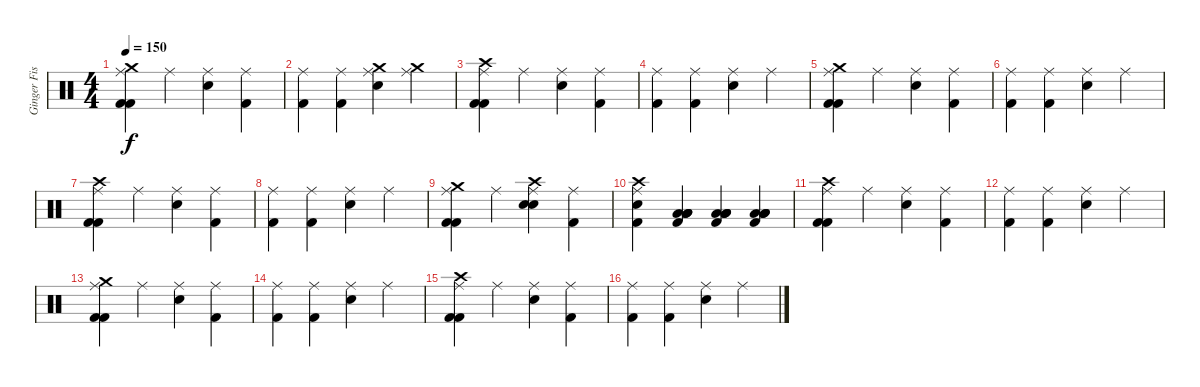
\track ("Ginger Fish" "Ginger Fis") {instrument percussion}
\staff {score}
\articulation defaults
\ts (4 4)
\tempo 150
\clef neutral
\ks c
("Crash medium (hit)" "Ride (middle)" "Kick (hit) 2" "Kick (hit) 2").4{dy f} "Ride (middle)".4 ("Ride (middle)" "Electric Snare (hit)").4 ("Ride (middle)" "Kick (hit) 2").4 |
("Ride (middle)" "Kick (hit) 2").4 ("Ride (middle)" "Kick (hit) 2").4 ("Crash medium (hit)" "Ride (middle)" "Electric Snare (hit)").4 ("Crash medium (hit)" "Ride (middle)").4 |
("Crash high (hit)" "Ride (middle)" "Kick (hit) 2" "Kick (hit) 2").4 "Ride (middle)".4 ("Ride (middle)" "Electric Snare (hit)").4 ("Ride (middle)" "Kick (hit) 2").4 |
("Ride (middle)" "Kick (hit) 2").4 ("Ride (middle)" "Kick (hit) 2").4 ("Ride (middle)" "Electric Snare (hit)").4 "Ride (middle)".4 |
("Crash medium (hit)" "Ride (middle)" "Kick (hit) 2" "Kick (hit) 2").4 "Ride (middle)".4 ("Ride (middle)" "Electric Snare (hit)").4 ("Ride (middle)" "Kick (hit) 2").4 |
("Ride (middle)" "Kick (hit) 2").4 ("Ride (middle)" "Kick (hit) 2").4 ("Ride (middle)" "Electric Snare (hit)").4 "Ride (middle)".4 |
("Crash high (hit)" "Ride (middle)" "Kick (hit) 2" "Kick (hit) 2").4 "Ride (middle)".4 ("Ride (middle)" "Electric Snare (hit)").4 ("Ride (middle)" "Kick (hit) 2").4 |
("Ride (middle)" "Kick (hit) 2").4 ("Ride (middle)" "Kick (hit) 2").4 ("Ride (middle)" "Electric Snare (hit)").4 "Ride (middle)".4 |
("Crash medium (hit)" "Ride (middle)" "Kick (hit) 2" "Kick (hit) 2").4 "Ride (middle)".4 ("Crash high (hit)" "Ride (middle)" "Electric Snare (hit)" "Electric Snare (hit)").4 ("Ride (middle)" "Kick (hit) 2").4 |
("Crash high (hit)" "Ride (middle)" "Electric Snare (hit)" "Kick (hit) 2").4 ("Kick (hit) 2" "Low Tom (hit)" "Low Tom (hit)" "Low Tom (hit)" "Low Tom (hit)").4 ("Kick (hit) 2" "Low Tom (hit)" "Low Tom (hit)" "Low Tom (hit)" "Low Tom (hit)").4 ("Kick (hit) 2" "Low Tom (hit)" "Low Tom (hit)" "Low Tom (hit)" "Low Tom (hit)").4 |
("Crash high (hit)" "Ride (middle)" "Kick (hit) 2" "Kick (hit) 2").4 "Ride (middle)".4 ("Ride (middle)" "Electric Snare (hit)").4 ("Ride (middle)" "Kick (hit) 2").4 |
("Ride (middle)" "Kick (hit) 2").4 ("Ride (middle)" "Kick (hit) 2").4 ("Ride (middle)" "Electric Snare (hit)").4 "Ride (middle)".4 |
("Crash medium (hit)" "Ride (middle)" "Kick (hit) 2" "Kick (hit) 2").4 "Ride (middle)".4 ("Ride (middle)" "Electric Snare (hit)").4 ("Ride (middle)" "Kick (hit) 2").4 |
("Ride (middle)" "Kick (hit) 2").4 ("Ride (middle)" "Kick (hit) 2").4 ("Ride (middle)" "Electric Snare (hit)").4 "Ride (middle)".4 |
("Crash high (hit)" "Ride (middle)" "Kick (hit) 2" "Kick (hit) 2").4 "Ride (middle)".4 ("Ride (middle)" "Electric Snare (hit)").4 ("Ride (middle)" "Kick (hit) 2").4 |
("Ride (middle)" "Kick (hit) 2").4 ("Ride (middle)" "Kick (hit) 2").4 ("Ride (middle)" "Electric Snare (hit)").4 "Ride (middle)".4
